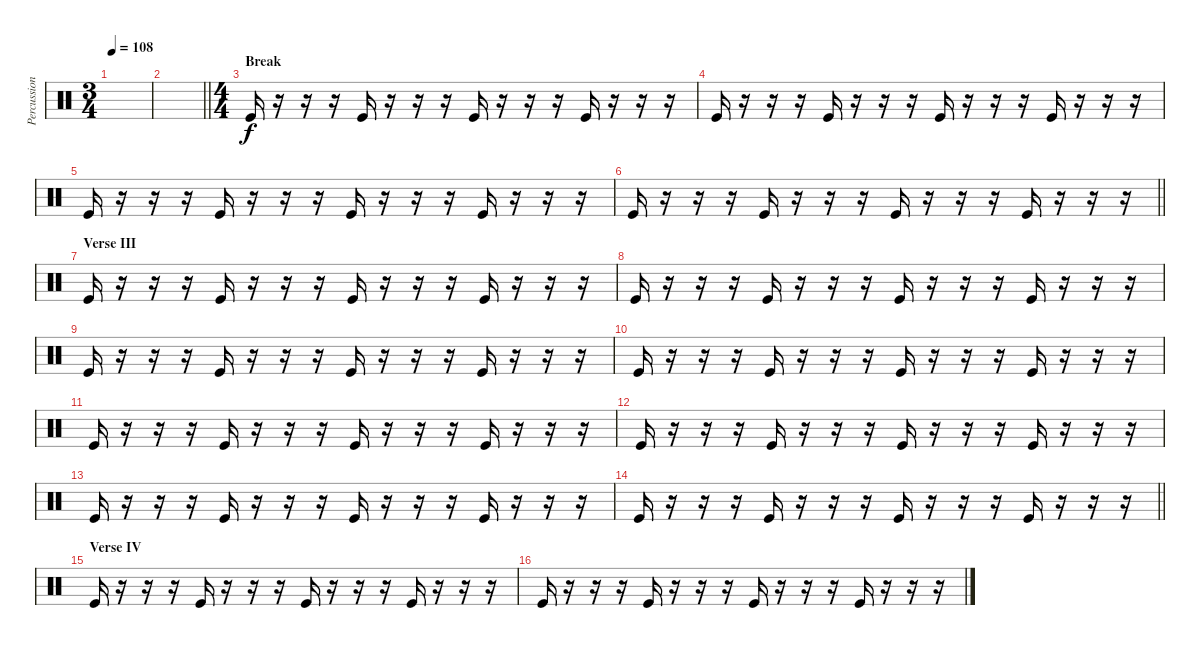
\track ("Percussion" "Percussion") {instrument percussion}
\staff {score}
\articulation defaults
\ts (3 4)
\tempo 108
\clef neutral
\ks c
|
\barLineRight lightlight
|
\ts (4 4)
\section ("" "Break")
"Kick (hit)".16{volume 9} r.16 r.16 r.16 "Kick (hit)".16 r.16 r.16 r.16 "Kick (hit)".16 r.16 r.16 r.16 "Kick (hit)".16 r.16 r.16 r.16 |
"Kick (hit)".16 r.16 r.16 r.16 "Kick (hit)".16 r.16 r.16 r.16 "Kick (hit)".16 r.16 r.16 r.16 "Kick (hit)".16 r.16 r.16 r.16 |
"Kick (hit)".16 r.16 r.16 r.16 "Kick (hit)".16 r.16 r.16 r.16 "Kick (hit)".16 r.16 r.16 r.16 "Kick (hit)".16 r.16 r.16 r.16 |
\barLineRight lightlight "Kick (hit)".16
r.16 r.16 r.16 "Kick (hit)".16 r.16 r.16 r.16 "Kick (hit)".16 r.16 r.16 r.16 "Kick (hit)".16 r.16 r.16 r.16 |
\section ("" "Verse III")
"Kick (hit)".16 r.16 r.16 r.16 "Kick (hit)".16 r.16 r.16 r.16 "Kick (hit)".16 r.16 r.16 r.16 "Kick (hit)".16 r.16 r.16 r.16 |
"Kick (hit)".16 r.16 r.16 r.16 "Kick (hit)".16 r.16 r.16 r.16 "Kick (hit)".16 r.16 r.16 r.16 "Kick (hit)".16 r.16 r.16 r.16 |
"Kick (hit)".16 r.16 r.16 r.16 "Kick (hit)".16 r.16 r.16 r.16 "Kick (hit)".16 r.16 r.16 r.16 "Kick (hit)".16 r.16 r.16 r.16 |
"Kick (hit)".16 r.16 r.16 r.16 "Kick (hit)".16 r.16 r.16 r.16 "Kick (hit)".16 r.16 r.16 r.16 "Kick (hit)".16 r.16 r.16 r.16 |
"Kick (hit)".16 r.16 r.16 r.16 "Kick (hit)".16 r.16 r.16 r.16 "Kick (hit)".16 r.16 r.16 r.16 "Kick (hit)".16 r.16 r.16 r.16 |
"Kick (hit)".16 r.16 r.16 r.16 "Kick (hit)".16 r.16 r.16 r.16 "Kick (hit)".16 r.16 r.16 r.16 "Kick (hit)".16 r.16 r.16 r.16 |
"Kick (hit)".16 r.16 r.16 r.16 "Kick (hit)".16 r.16 r.16 r.16 "Kick (hit)".16 r.16 r.16 r.16 "Kick (hit)".16 r.16 r.16 r.16 |
\barLineRight lightlight "Kick (hit)".16
r.16 r.16 r.16 "Kick (hit)".16 r.16 r.16 r.16 "Kick (hit)".16 r.16 r.16 r.16 "Kick (hit)".16 r.16 r.16 r.16 |
\section ("" "Verse IV")
"Kick (hit)".16 r.16 r.16 r.16 "Kick (hit)".16 r.16 r.16 r.16 "Kick (hit)".16 r.16 r.16 r.16 "Kick (hit)".16 r.16 r.16 r.16 |
"Kick (hit)".16 r.16 r.16 r.16 "Kick (hit)".16 r.16 r.16 r.16 "Kick (hit)".16 r.16 r.16 r.16 "Kick (hit)".16 r.16 r.16 r.16
